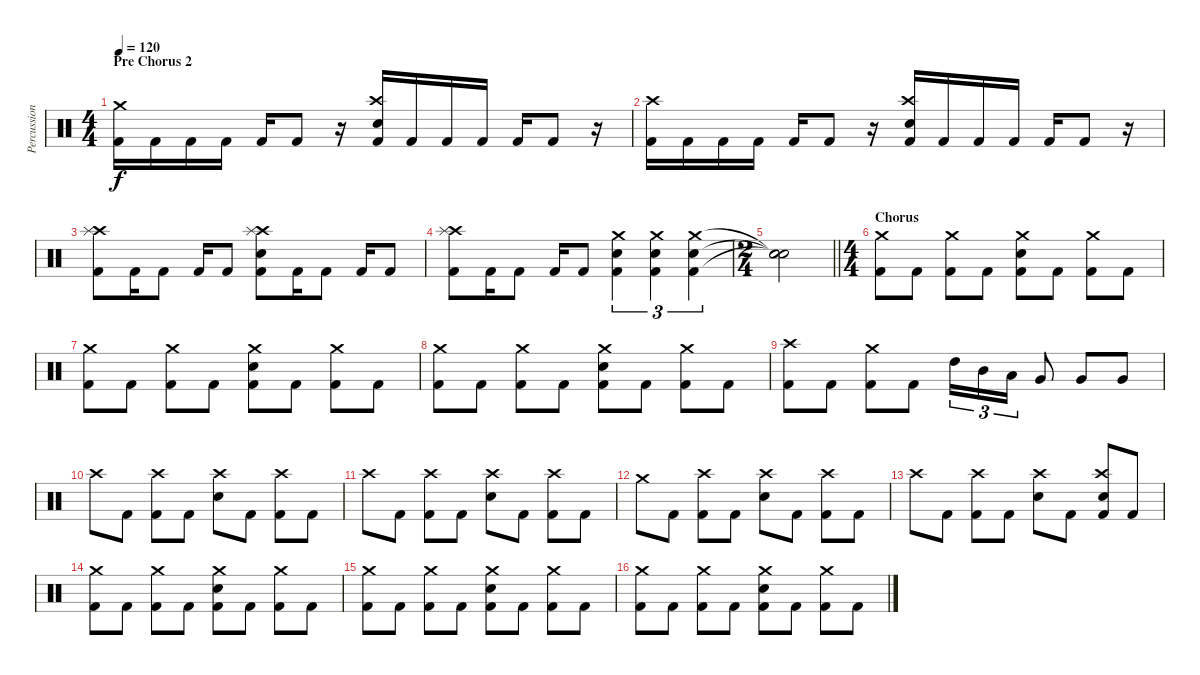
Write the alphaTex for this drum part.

\track ("Percussion" "Percussion") {instrument percussion}
\staff {score}
\articulation defaults
\ts (4 4)
\section ("" "Pre Chorus 2")
\tempo 120
\clef neutral
\ks c
("Crash medium (hit)" "Kick (hit) 2").16{dy f} "Kick (hit) 2".16 "Kick (hit) 2".16 "Kick (hit) 2".16 "Kick (hit) 2".16 "Kick (hit) 2".8 r.16 ("Crash high (hit)" "Snare (hit) 2" "Kick (hit) 2").16 "Kick (hit) 2".16 "Kick (hit) 2".16 "Kick (hit) 2".16 "Kick (hit) 2".16 "Kick (hit) 2".8 r.16 |
("Crash high (hit)" "Kick (hit) 2").16 "Kick (hit) 2".16 "Kick (hit) 2".16 "Kick (hit) 2".16 "Kick (hit) 2".16 "Kick (hit) 2".8 r.16 ("Crash high (hit)" "Snare (hit) 2" "Kick (hit) 2").16 "Kick (hit) 2".16 "Kick (hit) 2".16 "Kick (hit) 2".16 "Kick (hit) 2".16 "Kick (hit) 2".8 r.16 |
("Crash high (hit)" "Splash (hit)" "Kick (hit) 2").8 "Kick (hit) 2".16 "Kick (hit) 2".8 "Kick (hit) 2".16 "Kick (hit) 2".8 ("Crash high (hit)" "Splash (hit)" "Snare (hit) 2" "Kick (hit) 2").8 "Kick (hit) 2".16 "Kick (hit) 2".8 "Kick (hit) 2".16 "Kick (hit) 2".8 |
("Crash high (hit)" "Splash (hit)" "Kick (hit) 2").8 "Kick (hit) 2".16 "Kick (hit) 2".8 "Kick (hit) 2".16 "Kick (hit) 2".8 ("Crash medium (hit)" "Snare (hit) 2" "Kick (hit) 2").4{tu (3 2)} ("Crash medium (hit)" "Snare (hit) 2" "Kick (hit) 2").4{tu (3 2)} ("Crash medium (hit)" "Snare (hit) 2" "Kick (hit) 2").4{tu (3 2)} |
\ts (2 4)
\barLineRight lightlight
("Snare (hit)"{t} "Snare (hit)"{t} "Snare (hit)"{t}).2 |
\ts (4 4)
\section ("" "Chorus")
("Crash medium (hit)" "Kick (hit) 2").8 "Kick (hit) 2".8 ("Crash medium (hit)" "Kick (hit) 2").8 "Kick (hit) 2".8 ("Crash medium (hit)" "Snare (hit) 2" "Kick (hit) 2").8 "Kick (hit) 2".8 ("Crash medium (hit)" "Kick (hit) 2").8 "Kick (hit) 2".8 |
("Crash medium (hit)" "Kick (hit) 2").8 "Kick (hit) 2".8 ("Crash medium (hit)" "Kick (hit) 2").8 "Kick (hit) 2".8 ("Crash medium (hit)" "Snare (hit) 2" "Kick (hit) 2").8 "Kick (hit) 2".8 ("Crash medium (hit)" "Kick (hit) 2").8 "Kick (hit) 2".8 |
("Crash medium (hit)" "Kick (hit) 2").8 "Kick (hit) 2".8 ("Crash medium (hit)" "Kick (hit) 2").8 "Kick (hit) 2".8 ("Crash medium (hit)" "Snare (hit) 2" "Kick (hit) 2").8 "Kick (hit) 2".8 ("Crash medium (hit)" "Kick (hit) 2").8 "Kick (hit) 2".8 |
("Crash high (hit)" "Kick (hit) 2").8 "Kick (hit) 2".8 ("Crash medium (hit)" "Kick (hit) 2").8 "Kick (hit) 2".8 "High Tom (hit)".16{tu (3 2)} "Mid Tom (hit)".16{tu (3 2)} "Low Tom (hit)".16{tu (3 2)} "Very Low Tom (hit)".8 "Very Low Tom (hit)".8 "Very Low Tom (hit)".8 |
"Crash high (hit)".8 "Kick (hit) 2".8 ("Crash high (hit)" "Kick (hit) 2").8 "Kick (hit) 2".8 ("Crash high (hit)" "Snare (hit) 2").8 "Kick (hit) 2".8 ("Crash high (hit)" "Kick (hit) 2").8 "Kick (hit) 2".8 |
"Crash high (hit)".8 "Kick (hit) 2".8 ("Crash high (hit)" "Kick (hit) 2").8 "Kick (hit) 2".8 ("Crash high (hit)" "Snare (hit) 2").8 "Kick (hit) 2".8 ("Crash high (hit)" "Kick (hit) 2").8 "Kick (hit) 2".8 |
"Crash medium (hit)".8 "Kick (hit) 2".8 ("Crash high (hit)" "Kick (hit) 2").8 "Kick (hit) 2".8 ("Crash high (hit)" "Snare (hit) 2").8 "Kick (hit) 2".8 ("Crash high (hit)" "Kick (hit) 2").8 "Kick (hit) 2".8 |
"Crash high (hit)".8 "Kick (hit) 2".8 ("Crash high (hit)" "Kick (hit) 2").8 "Kick (hit) 2".8 ("Crash high (hit)" "Snare (hit) 2").8 "Kick (hit) 2".8 ("Crash high (hit)" "Snare (hit) 2" "Kick (hit) 2").8 "Kick (hit) 2".8 |
("Crash medium (hit)" "Kick (hit) 2").8 "Kick (hit) 2".8 ("Crash medium (hit)" "Kick (hit) 2").8 "Kick (hit) 2".8 ("Crash medium (hit)" "Snare (hit) 2" "Kick (hit) 2").8 "Kick (hit) 2".8 ("Crash medium (hit)" "Kick (hit) 2").8 "Kick (hit) 2".8 |
("Crash medium (hit)" "Kick (hit) 2").8 "Kick (hit) 2".8 ("Crash medium (hit)" "Kick (hit) 2").8 "Kick (hit) 2".8 ("Crash medium (hit)" "Snare (hit) 2" "Kick (hit) 2").8 "Kick (hit) 2".8 ("Crash medium (hit)" "Kick (hit) 2").8 "Kick (hit) 2".8 |
("Crash medium (hit)" "Kick (hit) 2").8 "Kick (hit) 2".8 ("Crash medium (hit)" "Kick (hit) 2").8 "Kick (hit) 2".8 ("Crash medium (hit)" "Snare (hit) 2" "Kick (hit) 2").8 "Kick (hit) 2".8 ("Crash medium (hit)" "Kick (hit) 2").8 "Kick (hit) 2".8
